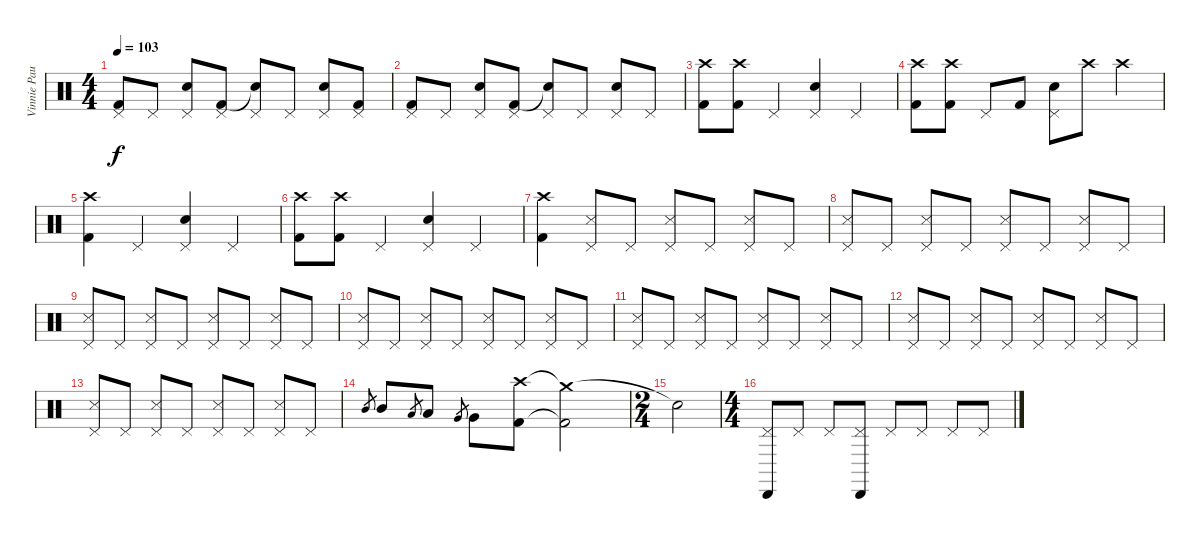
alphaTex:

\track ("Vinnie Paul" "Vinnie Pau") {instrument percussion}
\staff {score}
\articulation defaults
\ts (4 4)
\tempo 103
\clef neutral
\ks c
("Pedal Hi-Hat (hit)" "Kick (hit) 2").8{dy f} "Pedal Hi-Hat (hit)".8 ("Pedal Hi-Hat (hit)" "Electric Snare (hit)").8 ("Pedal Hi-Hat (hit)" "Kick (hit) 2").8 ("Pedal Hi-Hat (hit)" "Snare (hit)"{t}).8 "Pedal Hi-Hat (hit)".8 ("Pedal Hi-Hat (hit)" "Electric Snare (hit)").8 ("Pedal Hi-Hat (hit)" "Kick (hit) 2").8 |
("Pedal Hi-Hat (hit)" "Kick (hit) 2").8 "Pedal Hi-Hat (hit)".8 ("Pedal Hi-Hat (hit)" "Electric Snare (hit)").8 ("Pedal Hi-Hat (hit)" "Kick (hit) 2").8 ("Pedal Hi-Hat (hit)" "Snare (hit)"{t}).8 "Pedal Hi-Hat (hit)".8 ("Pedal Hi-Hat (hit)" "Electric Snare (hit)").8 "Pedal Hi-Hat (hit)".8 |
("Crash high (hit)" "Kick (hit) 2").8 ("Crash high (hit)" "Kick (hit) 2").8 "Pedal Hi-Hat (hit)".4 ("Pedal Hi-Hat (hit)" "Electric Snare (hit)").4 "Pedal Hi-Hat (hit)".4 |
("Crash high (hit)" "Kick (hit) 2").8 ("Crash high (hit)" "Kick (hit) 2").8 "Pedal Hi-Hat (hit)".8 "Kick (hit) 2".8 ("Pedal Hi-Hat (hit)" "Electric Snare (hit)").8 "Crash high (hit)".8 "Crash high (hit)".4 |
("Crash high (hit)" "Kick (hit) 2").4 "Pedal Hi-Hat (hit)".4 ("Pedal Hi-Hat (hit)" "Electric Snare (hit)").4 "Pedal Hi-Hat (hit)".4 |
("Crash high (hit)" "Kick (hit) 2").8 ("Crash high (hit)" "Kick (hit) 2").8 "Pedal Hi-Hat (hit)".4 ("Pedal Hi-Hat (hit)" "Electric Snare (hit)").4 "Pedal Hi-Hat (hit)".4 |
("Crash high (hit)" "Kick (hit) 2").4 ("Pedal Hi-Hat (hit)" "Snare (side stick) 3").8 "Pedal Hi-Hat (hit)".8 ("Pedal Hi-Hat (hit)" "Snare (side stick) 3").8 "Pedal Hi-Hat (hit)".8 ("Pedal Hi-Hat (hit)" "Snare (side stick) 3").8 "Pedal Hi-Hat (hit)".8 |
("Pedal Hi-Hat (hit)" "Snare (side stick) 3").8 "Pedal Hi-Hat (hit)".8 ("Pedal Hi-Hat (hit)" "Snare (side stick) 3").8 "Pedal Hi-Hat (hit)".8 ("Pedal Hi-Hat (hit)" "Snare (side stick) 3").8 "Pedal Hi-Hat (hit)".8 ("Pedal Hi-Hat (hit)" "Snare (side stick) 3").8 "Pedal Hi-Hat (hit)".8 |
("Pedal Hi-Hat (hit)" "Snare (side stick) 3").8 "Pedal Hi-Hat (hit)".8 ("Pedal Hi-Hat (hit)" "Snare (side stick) 3").8 "Pedal Hi-Hat (hit)".8 ("Pedal Hi-Hat (hit)" "Snare (side stick) 3").8 "Pedal Hi-Hat (hit)".8 ("Pedal Hi-Hat (hit)" "Snare (side stick) 3").8 "Pedal Hi-Hat (hit)".8 |
("Pedal Hi-Hat (hit)" "Snare (side stick) 3").8 "Pedal Hi-Hat (hit)".8 ("Pedal Hi-Hat (hit)" "Snare (side stick) 3").8 "Pedal Hi-Hat (hit)".8 ("Pedal Hi-Hat (hit)" "Snare (side stick) 3").8 "Pedal Hi-Hat (hit)".8 ("Pedal Hi-Hat (hit)" "Snare (side stick) 3").8 "Pedal Hi-Hat (hit)".8 |
("Pedal Hi-Hat (hit)" "Snare (side stick) 3").8 "Pedal Hi-Hat (hit)".8 ("Pedal Hi-Hat (hit)" "Snare (side stick) 3").8 "Pedal Hi-Hat (hit)".8 ("Pedal Hi-Hat (hit)" "Snare (side stick) 3").8 "Pedal Hi-Hat (hit)".8 ("Pedal Hi-Hat (hit)" "Snare (side stick) 3").8 "Pedal Hi-Hat (hit)".8 |
("Pedal Hi-Hat (hit)" "Snare (side stick) 3").8 "Pedal Hi-Hat (hit)".8 ("Pedal Hi-Hat (hit)" "Snare (side stick) 3").8 "Pedal Hi-Hat (hit)".8 ("Pedal Hi-Hat (hit)" "Snare (side stick) 3").8 "Pedal Hi-Hat (hit)".8 ("Pedal Hi-Hat (hit)" "Snare (side stick) 3").8 "Pedal Hi-Hat (hit)".8 |
("Pedal Hi-Hat (hit)" "Snare (side stick) 3").8 "Pedal Hi-Hat (hit)".8 ("Pedal Hi-Hat (hit)" "Snare (side stick) 3").8 "Pedal Hi-Hat (hit)".8 ("Pedal Hi-Hat (hit)" "Snare (side stick) 3").8 "Pedal Hi-Hat (hit)".8 ("Pedal Hi-Hat (hit)" "Snare (side stick) 3").8 "Pedal Hi-Hat (hit)".8 |
"Mid Tom (hit)".8{gr} "Mid Tom (hit)".8 "Low Tom (hit)".8{gr} "Low Tom (hit)".8 "Very Low Tom (hit)".8{gr} "Very Low Tom (hit)".8 ("Crash high (hit)" "Kick (hit) 2").8 ("Crash medium (hit)"{t} "Kick (hit) 2"{t}).2 |
\ts (2 4)
"Snare (hit)"{t}.2 |
\ts (4 4)
("Pedal Hi-Hat (hit)" "Cabasa (hit)").8 "Pedal Hi-Hat (hit)".8 "Pedal Hi-Hat (hit)".8 ("Pedal Hi-Hat (hit)" "Cabasa (hit)").8 "Pedal Hi-Hat (hit)".8 "Pedal Hi-Hat (hit)".8 "Pedal Hi-Hat (hit)".8 "Pedal Hi-Hat (hit)".8
